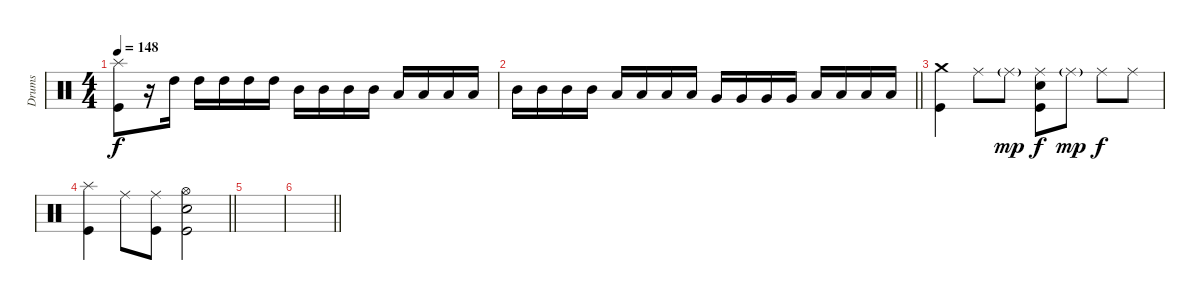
\track ("Drums" "Drums") {instrument percussion}
\staff {score}
\articulation defaults
\ts (4 4)
\tempo 148
\clef neutral
\ks c
("Splash (hit)" "Kick (hit)").8{dy f} r.16 "High Tom (hit)".16 "High Tom (hit)".16 "High Tom (hit)".16 "High Tom (hit)".16 "High Tom (hit)".16 "Mid Tom (hit)".16 "Mid Tom (hit)".16 "Mid Tom (hit)".16 "Mid Tom (hit)".16 "Low Tom (hit)".16 "Low Tom (hit)".16 "Low Tom (hit)".16 "Low Tom (hit)".16 |
\barLineRight lightlight "Mid Tom (hit)".16 "Mid Tom (hit)".16 "Mid Tom (hit)".16 "Mid Tom (hit)".16 "Low Tom (hit)".16 "Low Tom (hit)".16 "Low Tom (hit)".16 "Low Tom (hit)".16 "Very Low Tom (hit)".16 "Very Low Tom (hit)".16 "Very Low Tom (hit)".16 "Very Low Tom (hit)".16 "Low Floor Tom (hit)".16 "Low Floor Tom (hit)".16 "Low Floor Tom (hit)".16 "Low Floor Tom (hit)".16
|
("Crash medium (hit)" "Kick (hit)").4 "Ride (middle)".8 "Ride (middle)"{g}.8{dy mp} ("Ride (middle)" "Snare (hit) 2" "Kick (hit)").8{dy f} "Ride (middle)"{g}.8{dy mp} "Ride (middle)".8{dy f} "Ride (middle)".8 |
\barLineRight lightlight
("Splash (hit)" "Kick (hit)").4 "Ride (middle)".8 ("Ride (middle)" "Kick (hit)").8 ("Hi-Hat (open)" "Snare (hit) 2" "Kick (hit)").2 |
|
\barLineRight lightlight
